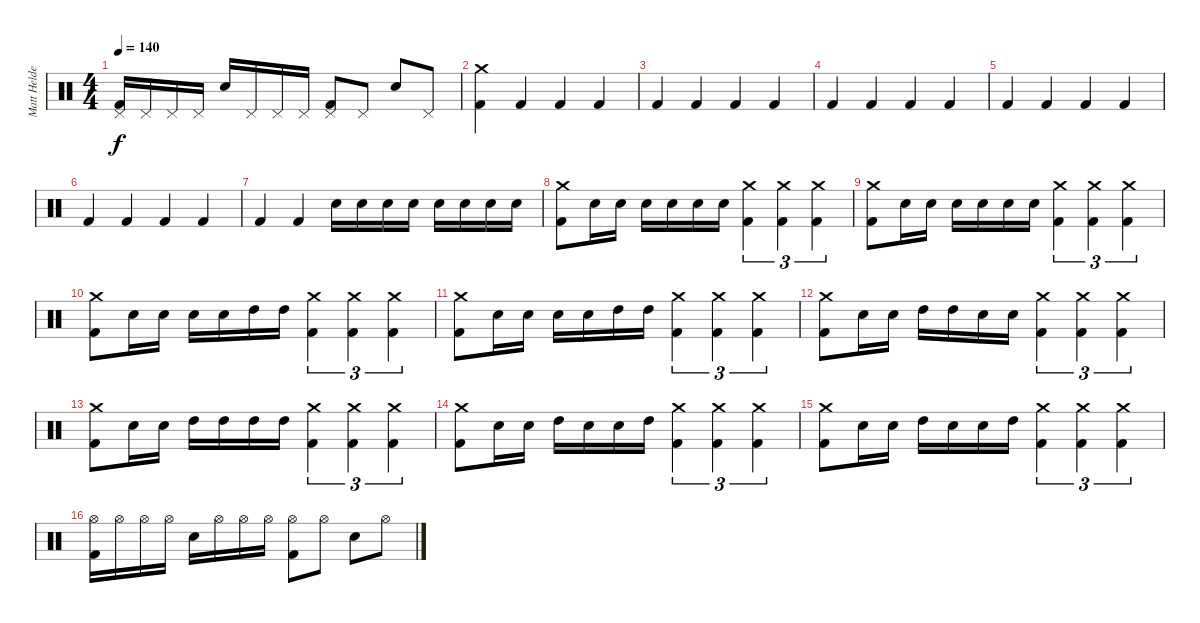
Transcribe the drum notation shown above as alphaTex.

\track ("Matt Helders" "Matt Helde") {instrument percussion}
\staff {score}
\articulation defaults
\ts (4 4)
\tempo 140
\clef neutral
\ks c
("Pedal Hi-Hat (hit)" "Kick (hit) 2").16{dy f} "Pedal Hi-Hat (hit)".16 "Pedal Hi-Hat (hit)".16 "Pedal Hi-Hat (hit)".16 "Snare (hit) 2".16 "Pedal Hi-Hat (hit)".16 "Pedal Hi-Hat (hit)".16 "Pedal Hi-Hat (hit)".16 ("Pedal Hi-Hat (hit)" "Kick (hit) 2").8 "Pedal Hi-Hat (hit)".8 "Snare (hit) 2".8 "Pedal Hi-Hat (hit)".8 |
("Crash medium (hit)" "Kick (hit) 2").4 "Kick (hit) 2".4 "Kick (hit) 2".4 "Kick (hit) 2".4 |
"Kick (hit) 2".4 "Kick (hit) 2".4 "Kick (hit) 2".4 "Kick (hit) 2".4 |
"Kick (hit) 2".4 "Kick (hit) 2".4 "Kick (hit) 2".4 "Kick (hit) 2".4 |
"Kick (hit) 2".4 "Kick (hit) 2".4 "Kick (hit) 2".4 "Kick (hit) 2".4 |
"Kick (hit) 2".4 "Kick (hit) 2".4 "Kick (hit) 2".4 "Kick (hit) 2".4 |
"Kick (hit) 2".4 "Kick (hit) 2".4 "Snare (hit) 2".16 "Snare (hit) 2".16 "Snare (hit) 2".16 "Snare (hit) 2".16 "Snare (hit) 2".16 "Snare (hit) 2".16 "Snare (hit) 2".16 "Snare (hit) 2".16 |
("Crash medium (hit)" "Kick (hit) 2").8 "Snare (hit) 2".16 "Snare (hit) 2".16 "Snare (hit) 2".16 "Snare (hit) 2".16 "Snare (hit) 2".16 "Snare (hit) 2".16 ("Crash medium (hit)" "Kick (hit) 2").4{tu (3 2)} ("Crash medium (hit)" "Kick (hit) 2").4{tu (3 2)} ("Crash medium (hit)" "Kick (hit) 2").4{tu (3 2)} |
("Crash medium (hit)" "Kick (hit) 2").8 "Snare (hit) 2".16 "Snare (hit) 2".16 "Snare (hit) 2".16 "Snare (hit) 2".16 "Snare (hit) 2".16 "Snare (hit) 2".16 ("Crash medium (hit)" "Kick (hit) 2").4{tu (3 2)} ("Crash medium (hit)" "Kick (hit) 2").4{tu (3 2)} ("Crash medium (hit)" "Kick (hit) 2").4{tu (3 2)} |
("Crash medium (hit)" "Kick (hit) 2").8 "Snare (hit) 2".16 "Snare (hit) 2".16 "Snare (hit) 2".16 "Snare (hit) 2".16 "High Tom (hit)".16 "High Tom (hit)".16 ("Crash medium (hit)" "Kick (hit) 2").4{tu (3 2)} ("Crash medium (hit)" "Kick (hit) 2").4{tu (3 2)} ("Crash medium (hit)" "Kick (hit) 2").4{tu (3 2)} |
("Crash medium (hit)" "Kick (hit) 2").8 "Snare (hit) 2".16 "Snare (hit) 2".16 "Snare (hit) 2".16 "Snare (hit) 2".16 "High Tom (hit)".16 "High Tom (hit)".16 ("Crash medium (hit)" "Kick (hit) 2").4{tu (3 2)} ("Crash medium (hit)" "Kick (hit) 2").4{tu (3 2)} ("Crash medium (hit)" "Kick (hit) 2").4{tu (3 2)} |
("Crash medium (hit)" "Kick (hit) 2").8 "Snare (hit) 2".16 "Snare (hit) 2".16 "High Tom (hit)".16 "High Tom (hit)".16 "Snare (hit) 2".16 "Snare (hit) 2".16 ("Crash medium (hit)" "Kick (hit) 2").4{tu (3 2)} ("Crash medium (hit)" "Kick (hit) 2").4{tu (3 2)} ("Crash medium (hit)" "Kick (hit) 2").4{tu (3 2)} |
("Crash medium (hit)" "Kick (hit) 2").8 "Snare (hit) 2".16 "Snare (hit) 2".16 "High Tom (hit)".16 "High Tom (hit)".16 "High Tom (hit)".16 "High Tom (hit)".16 ("Crash medium (hit)" "Kick (hit) 2").4{tu (3 2)} ("Crash medium (hit)" "Kick (hit) 2").4{tu (3 2)} ("Crash medium (hit)" "Kick (hit) 2").4{tu (3 2)} |
("Crash medium (hit)" "Kick (hit) 2").8 "Snare (hit) 2".16 "Snare (hit) 2".16 "High Tom (hit)".16 "Snare (hit) 2".16 "Snare (hit) 2".16 "High Tom (hit)".16 ("Crash medium (hit)" "Kick (hit) 2").4{tu (3 2)} ("Crash medium (hit)" "Kick (hit) 2").4{tu (3 2)} ("Crash medium (hit)" "Kick (hit) 2").4{tu (3 2)} |
("Crash medium (hit)" "Kick (hit) 2").8 "Snare (hit) 2".16 "Snare (hit) 2".16 "High Tom (hit)".16 "Snare (hit) 2".16 "Snare (hit) 2".16 "High Tom (hit)".16 ("Crash medium (hit)" "Kick (hit) 2").4{tu (3 2)} ("Crash medium (hit)" "Kick (hit) 2").4{tu (3 2)} ("Crash medium (hit)" "Kick (hit) 2").4{tu (3 2)} |
("Hi-Hat (open)" "Kick (hit) 2").16 "Hi-Hat (open)".16 "Hi-Hat (open)".16 "Hi-Hat (open)".16 "Snare (hit) 2".16 "Hi-Hat (open)".16 "Hi-Hat (open)".16 "Hi-Hat (open)".16 ("Hi-Hat (open)" "Kick (hit) 2").8 "Hi-Hat (open)".8 "Snare (hit) 2".8 "Hi-Hat (open)".8
